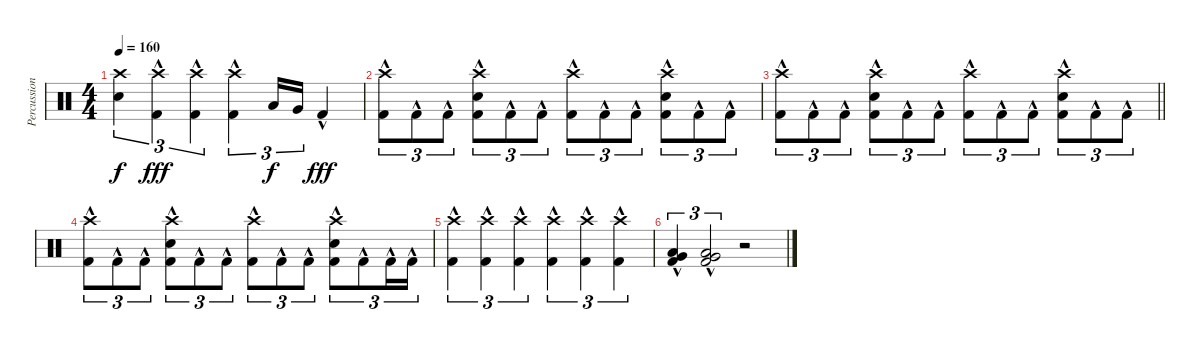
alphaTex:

\track ("Percussion" "Percussion") {instrument percussion}
\staff {score}
\articulation defaults
\ts (4 4)
\tempo 160
\clef neutral
\ks c
("Crash high (hit)" "Electric Snare (hit)").4{tu (3 2) dy f} ("Crash high (hit)" "Kick (hit) 2"{hac}).4{tu (3 2) dy fff} ("Crash high (hit)" "Kick (hit) 2"{hac}).4{tu (3 2)} ("Crash high (hit)" "Kick (hit) 2"{hac}).4{tu (3 2)} "Low Tom (hit)".16{tu (3 2) dy f} "Very Low Tom (hit)".16{tu (3 2)} "Kick (hit) 2"{hac}.4{dy fff} |
("Crash high (hit)" "Kick (hit) 2"{hac}).8{tu (3 2)} "Kick (hit) 2"{hac}.8{tu (3 2)} "Kick (hit) 2"{hac}.8{tu (3 2)} ("Crash high (hit)" "Electric Snare (hit)" "Kick (hit) 2"{hac}).8{tu (3 2)} "Kick (hit) 2"{hac}.8{tu (3 2)} "Kick (hit) 2"{hac}.8{tu (3 2)} ("Crash high (hit)" "Kick (hit) 2"{hac}).8{tu (3 2)} "Kick (hit) 2"{hac}.8{tu (3 2)} "Kick (hit) 2"{hac}.8{tu (3 2)} ("Crash high (hit)" "Electric Snare (hit)" "Kick (hit) 2"{hac}).8{tu (3 2)} "Kick (hit) 2"{hac}.8{tu (3 2)} "Kick (hit) 2"{hac}.8{tu (3 2)} |
\barLineRight lightlight
("Crash high (hit)" "Kick (hit) 2"{hac}).8{tu (3 2)} "Kick (hit) 2"{hac}.8{tu (3 2)} "Kick (hit) 2"{hac}.8{tu (3 2)} ("Crash high (hit)" "Electric Snare (hit)" "Kick (hit) 2"{hac}).8{tu (3 2)} "Kick (hit) 2"{hac}.8{tu (3 2)} "Kick (hit) 2"{hac}.8{tu (3 2)} ("Crash high (hit)" "Kick (hit) 2"{hac}).8{tu (3 2)} "Kick (hit) 2"{hac}.8{tu (3 2)} "Kick (hit) 2"{hac}.8{tu (3 2)} ("Crash high (hit)" "Electric Snare (hit)" "Kick (hit) 2"{hac}).8{tu (3 2)} "Kick (hit) 2"{hac}.8{tu (3 2)} "Kick (hit) 2"{hac}.8{tu (3 2)} |
("Crash high (hit)" "Kick (hit) 2"{hac}).8{tu (3 2)} "Kick (hit) 2"{hac}.8{tu (3 2)} "Kick (hit) 2"{hac}.8{tu (3 2)} ("Crash high (hit)" "Electric Snare (hit)" "Kick (hit) 2"{hac}).8{tu (3 2)} "Kick (hit) 2"{hac}.8{tu (3 2)} "Kick (hit) 2"{hac}.8{tu (3 2)} ("Crash high (hit)" "Kick (hit) 2"{hac}).8{tu (3 2)} "Kick (hit) 2"{hac}.8{tu (3 2)} "Kick (hit) 2"{hac}.8{tu (3 2)} ("Crash high (hit)" "Electric Snare (hit)" "Kick (hit) 2"{hac}).8{tu (3 2)} "Kick (hit) 2"{hac}.8{tu (3 2)} "Kick (hit) 2"{hac}.16{tu (3 2)} "Kick (hit) 2"{hac}.16{tu (3 2)} |
("Crash high (hit)" "Kick (hit) 2"{hac}).4{tu (3 2)} ("Crash high (hit)" "Kick (hit) 2"{hac}).4{tu (3 2)} ("Crash high (hit)" "Kick (hit) 2"{hac}).4{tu (3 2)} ("Crash high (hit)" "Kick (hit) 2"{hac}).4{tu (3 2)} ("Crash high (hit)" "Kick (hit) 2"{hac}).4{tu (3 2)} ("Crash high (hit)" "Kick (hit) 2"{hac}).4{tu (3 2)} |
("Low Tom (hit)" "Very Low Tom (hit)" "Kick (hit) 2"{hac}).4{tu (3 2)} ("Low Tom (hit)" "Very Low Tom (hit)" "Kick (hit) 2"{hac}).2{tu (3 2)} r.2
